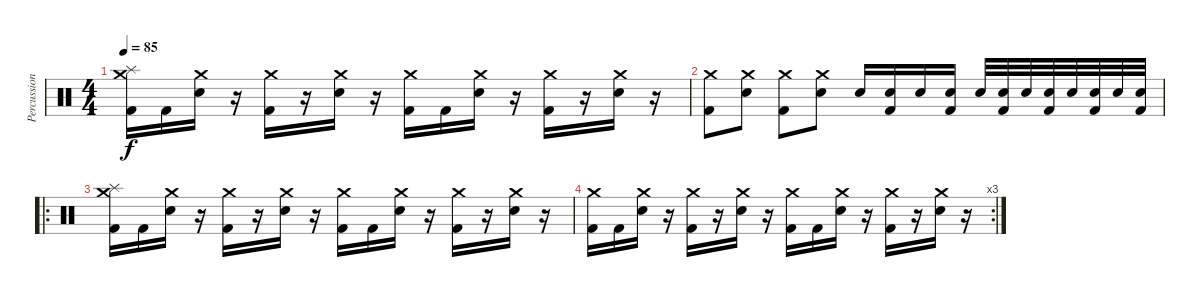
\track ("Percussion" "Percussion") {instrument percussion}
\staff {score}
\articulation defaults
\ts (4 4)
\tempo 85
\clef neutral
\ks c
("Crash medium (hit)" "Splash (hit)" "Kick (hit) 2").16{dy f} "Kick (hit) 2".16 ("Crash medium (hit)" "Electric Snare (hit)").16 r.16 ("Crash medium (hit)" "Kick (hit) 2").16 r.16 ("Crash medium (hit)" "Electric Snare (hit)").16 r.16 ("Crash medium (hit)" "Kick (hit) 2").16 "Kick (hit) 2".16 ("Crash medium (hit)" "Electric Snare (hit)").16 r.16 ("Crash medium (hit)" "Kick (hit) 2").16 r.16 ("Crash medium (hit)" "Electric Snare (hit)").16 r.16 |
("Crash medium (hit)" "Kick (hit) 2").8 ("Crash medium (hit)" "Electric Snare (hit)").8 ("Crash medium (hit)" "Kick (hit) 2").8 ("Crash medium (hit)" "Electric Snare (hit)").8 "Electric Snare (hit)".16 ("Electric Snare (hit)" "Kick (hit) 2").16 "Electric Snare (hit)".16 ("Electric Snare (hit)" "Kick (hit) 2").16 "Electric Snare (hit)".32 ("Electric Snare (hit)" "Kick (hit) 2").32 "Electric Snare (hit)".32 ("Electric Snare (hit)" "Kick (hit) 2").32 "Electric Snare (hit)".32 ("Electric Snare (hit)" "Kick (hit) 2").32 "Electric Snare (hit)".32 ("Electric Snare (hit)" "Kick (hit) 2").32 |
\ro
("Crash medium (hit)" "Splash (hit)" "Kick (hit) 2").16 "Kick (hit) 2".16 ("Crash medium (hit)" "Electric Snare (hit)").16 r.16 ("Crash medium (hit)" "Kick (hit) 2").16 r.16 ("Crash medium (hit)" "Electric Snare (hit)").16 r.16 ("Crash medium (hit)" "Kick (hit) 2").16 "Kick (hit) 2".16 ("Crash medium (hit)" "Electric Snare (hit)").16 r.16 ("Crash medium (hit)" "Kick (hit) 2").16 r.16 ("Crash medium (hit)" "Electric Snare (hit)").16 r.16 |
\rc 3
("Crash medium (hit)" "Kick (hit) 2").16 "Kick (hit) 2".16 ("Crash medium (hit)" "Electric Snare (hit)").16 r.16 ("Crash medium (hit)" "Kick (hit) 2").16 r.16 ("Crash medium (hit)" "Electric Snare (hit)").16 r.16 ("Crash medium (hit)" "Kick (hit) 2").16 "Kick (hit) 2".16 ("Crash medium (hit)" "Electric Snare (hit)").16 r.16 ("Crash medium (hit)" "Kick (hit) 2").16 r.16 ("Crash medium (hit)" "Electric Snare (hit)").16 r.16
